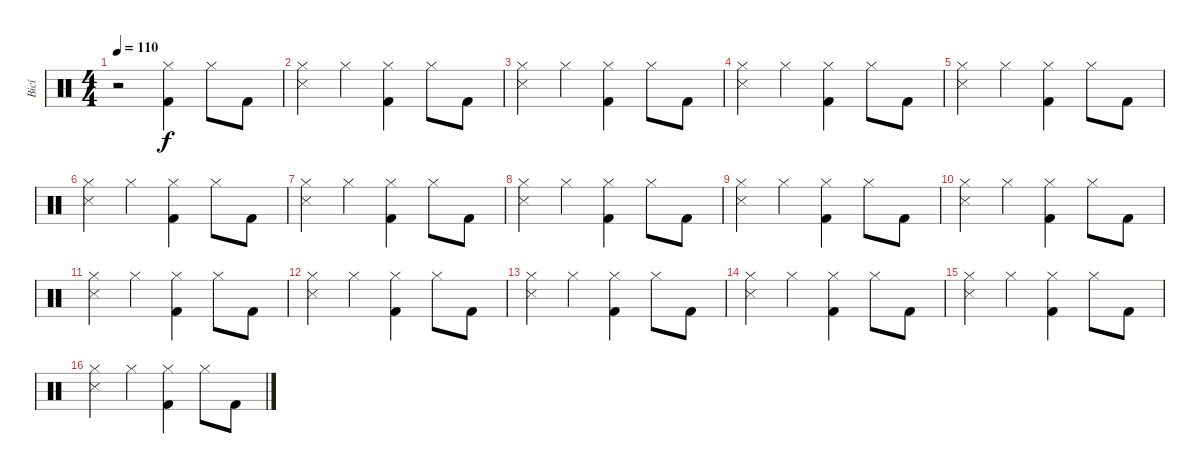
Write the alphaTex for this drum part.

\track ("Bicí" "Bicí") {instrument percussion}
\staff {score}
\articulation defaults
\ts (4 4)
\tempo 110
\clef neutral
\ks c
r.2{dy f} ("Kick (hit) 2" "Hi-Hat (closed)").4 "Hi-Hat (closed)".8 "Kick (hit) 2".8 |
("Snare (side stick) 3" "Hi-Hat (closed)").4 "Hi-Hat (closed)".4 ("Kick (hit) 2" "Hi-Hat (closed)").4 "Hi-Hat (closed)".8 "Kick (hit) 2".8 |
("Snare (side stick) 3" "Hi-Hat (closed)").4 "Hi-Hat (closed)".4 ("Kick (hit) 2" "Hi-Hat (closed)").4 "Hi-Hat (closed)".8 "Kick (hit) 2".8 |
("Snare (side stick) 3" "Hi-Hat (closed)").4 "Hi-Hat (closed)".4 ("Kick (hit) 2" "Hi-Hat (closed)").4 "Hi-Hat (closed)".8 "Kick (hit) 2".8 |
("Snare (side stick) 3" "Hi-Hat (closed)").4 "Hi-Hat (closed)".4 ("Kick (hit) 2" "Hi-Hat (closed)").4 "Hi-Hat (closed)".8 "Kick (hit) 2".8 |
("Snare (side stick) 3" "Hi-Hat (closed)").4 "Hi-Hat (closed)".4 ("Kick (hit) 2" "Hi-Hat (closed)").4 "Hi-Hat (closed)".8 "Kick (hit) 2".8 |
("Snare (side stick) 3" "Hi-Hat (closed)").4 "Hi-Hat (closed)".4 ("Kick (hit) 2" "Hi-Hat (closed)").4 "Hi-Hat (closed)".8 "Kick (hit) 2".8 |
("Snare (side stick) 3" "Hi-Hat (closed)").4 "Hi-Hat (closed)".4 ("Kick (hit) 2" "Hi-Hat (closed)").4 "Hi-Hat (closed)".8 "Kick (hit) 2".8 |
("Snare (side stick) 3" "Hi-Hat (closed)").4 "Hi-Hat (closed)".4 ("Kick (hit) 2" "Hi-Hat (closed)").4 "Hi-Hat (closed)".8 "Kick (hit) 2".8 |
("Snare (side stick) 3" "Hi-Hat (closed)").4 "Hi-Hat (closed)".4 ("Kick (hit) 2" "Hi-Hat (closed)").4 "Hi-Hat (closed)".8 "Kick (hit) 2".8 |
("Snare (side stick) 3" "Hi-Hat (closed)").4 "Hi-Hat (closed)".4 ("Kick (hit) 2" "Hi-Hat (closed)").4 "Hi-Hat (closed)".8 "Kick (hit) 2".8 |
("Snare (side stick) 3" "Hi-Hat (closed)").4 "Hi-Hat (closed)".4 ("Kick (hit) 2" "Hi-Hat (closed)").4 "Hi-Hat (closed)".8 "Kick (hit) 2".8 |
("Snare (side stick) 3" "Hi-Hat (closed)").4 "Hi-Hat (closed)".4 ("Kick (hit) 2" "Hi-Hat (closed)").4 "Hi-Hat (closed)".8 "Kick (hit) 2".8 |
("Snare (side stick) 3" "Hi-Hat (closed)").4 "Hi-Hat (closed)".4 ("Kick (hit) 2" "Hi-Hat (closed)").4 "Hi-Hat (closed)".8 "Kick (hit) 2".8 |
("Snare (side stick) 3" "Hi-Hat (closed)").4 "Hi-Hat (closed)".4 ("Kick (hit) 2" "Hi-Hat (closed)").4 "Hi-Hat (closed)".8 "Kick (hit) 2".8 |
("Snare (side stick) 3" "Hi-Hat (closed)").4 "Hi-Hat (closed)".4 ("Kick (hit) 2" "Hi-Hat (closed)").4 "Hi-Hat (closed)".8 "Kick (hit) 2".8
